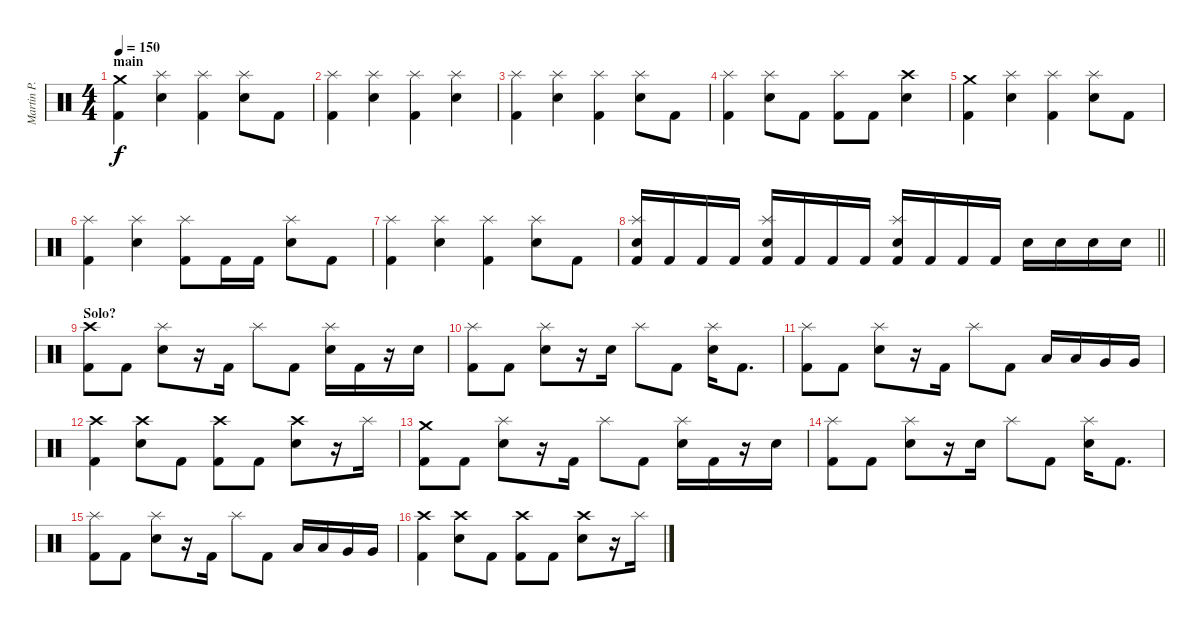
\track ("Martin P." "Martin P.") {instrument percussion}
\staff {score}
\articulation defaults
\ts (4 4)
\section ("" "main")
\tempo 150
\clef neutral
\ks c
("Crash medium (hit)" "Kick (hit) 2").4{dy f} ("Splash (hit)" "Electric Snare (hit)").4 ("Splash (hit)" "Kick (hit) 2").4 ("Electric Snare (hit)" "Splash (hit)").8 "Kick (hit) 2".8 |
("Splash (hit)" "Kick (hit) 2").4 ("Splash (hit)" "Electric Snare (hit)").4 ("Splash (hit)" "Kick (hit) 2").4 ("Splash (hit)" "Electric Snare (hit)").4 |
("Splash (hit)" "Kick (hit) 2").4 ("Splash (hit)" "Electric Snare (hit)").4 ("Splash (hit)" "Kick (hit) 2").4 ("Electric Snare (hit)" "Splash (hit)").8 "Kick (hit) 2".8 |
("Splash (hit)" "Kick (hit) 2").4 ("Splash (hit)" "Electric Snare (hit)").8 "Kick (hit) 2".8 ("Splash (hit)" "Kick (hit) 2").8 "Kick (hit) 2".8 ("Electric Snare (hit)" "Crash high (hit)").4 |
("Crash medium (hit)" "Kick (hit) 2").4 ("Splash (hit)" "Electric Snare (hit)").4 ("Splash (hit)" "Kick (hit) 2").4 ("Electric Snare (hit)" "Splash (hit)").8 "Kick (hit) 2".8 |
("Splash (hit)" "Kick (hit) 2").4 ("Splash (hit)" "Electric Snare (hit)").4 ("Splash (hit)" "Kick (hit) 2").8 "Kick (hit) 2".16 "Kick (hit) 2".16 ("Electric Snare (hit)" "Splash (hit)").8 "Kick (hit) 2".8 |
("Splash (hit)" "Kick (hit) 2").4 ("Splash (hit)" "Electric Snare (hit)").4 ("Splash (hit)" "Kick (hit) 2").4 ("Electric Snare (hit)" "Splash (hit)").8 "Kick (hit) 2".8 |
\barLineRight lightlight
("Splash (hit)" "Electric Snare (hit)" "Kick (hit) 2").16 "Kick (hit) 2".16 "Kick (hit) 2".16 "Kick (hit) 2".16 ("Splash (hit)" "Electric Snare (hit)" "Kick (hit) 2").16 "Kick (hit) 2".16 "Kick (hit) 2".16 "Kick (hit) 2".16 ("Electric Snare (hit)" "Splash (hit)" "Kick (hit) 2").16 "Kick (hit) 2".16 "Kick (hit) 2".16 "Kick (hit) 2".16 "Electric Snare (hit)".16 "Electric Snare (hit)".16 "Electric Snare (hit)".16 "Electric Snare (hit)".16 |
\section ("" "Solo?")
("Crash high (hit)" "Kick (hit) 2").8 "Kick (hit) 2".8 ("Splash (hit)" "Electric Snare (hit)").8 r.16 "Kick (hit) 2".16 "Splash (hit)".8 "Kick (hit) 2".8 ("Splash (hit)" "Electric Snare (hit)").16 "Kick (hit) 2".16 r.16 "Electric Snare (hit)".16 |
("Splash (hit)" "Kick (hit) 2").8 "Kick (hit) 2".8 ("Splash (hit)" "Electric Snare (hit)").8 r.16 "Electric Snare (hit)".16 "Splash (hit)".8 "Kick (hit) 2".8 ("Splash (hit)" "Electric Snare (hit)").16 "Kick (hit) 2".8{d} |
("Splash (hit)" "Kick (hit) 2").8 "Kick (hit) 2".8 ("Splash (hit)" "Electric Snare (hit)").8 r.16 "Kick (hit) 2".16 "Splash (hit)".8 "Kick (hit) 2".8 "Low Tom (hit)".16 "Low Tom (hit)".16 "Very Low Tom (hit)".16 "Very Low Tom (hit)".16 |
("Crash high (hit)" "Kick (hit) 2").4 ("Crash high (hit)" "Electric Snare (hit)").8 "Kick (hit) 2".8 ("Crash high (hit)" "Kick (hit) 2").8 "Kick (hit) 2".8 ("Crash high (hit)" "Electric Snare (hit)").8 r.16 "Splash (hit)".16 |
("Crash medium (hit)" "Kick (hit) 2").8 "Kick (hit) 2".8 ("Splash (hit)" "Electric Snare (hit)").8 r.16 "Kick (hit) 2".16 "Splash (hit)".8 "Kick (hit) 2".8 ("Splash (hit)" "Electric Snare (hit)").16 "Kick (hit) 2".16 r.16 "Electric Snare (hit)".16 |
("Splash (hit)" "Kick (hit) 2").8 "Kick (hit) 2".8 ("Splash (hit)" "Electric Snare (hit)").8 r.16 "Electric Snare (hit)".16 "Splash (hit)".8 "Kick (hit) 2".8 ("Splash (hit)" "Electric Snare (hit)").16 "Kick (hit) 2".8{d} |
("Splash (hit)" "Kick (hit) 2").8 "Kick (hit) 2".8 ("Splash (hit)" "Electric Snare (hit)").8 r.16 "Kick (hit) 2".16 "Splash (hit)".8 "Kick (hit) 2".8 "Low Tom (hit)".16 "Low Tom (hit)".16 "Very Low Tom (hit)".16 "Very Low Tom (hit)".16 |
("Crash high (hit)" "Kick (hit) 2").4 ("Crash high (hit)" "Electric Snare (hit)").8 "Kick (hit) 2".8 ("Crash high (hit)" "Kick (hit) 2").8 "Kick (hit) 2".8 ("Crash high (hit)" "Electric Snare (hit)").8 r.16 "Splash (hit)".16
